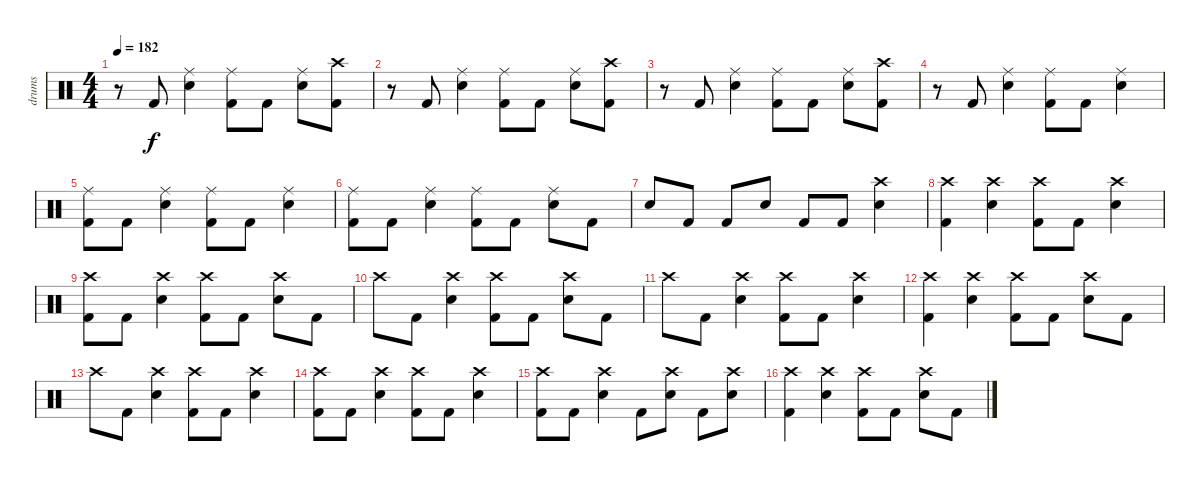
\track ("drums" "drums") {instrument percussion}
\staff {score}
\articulation defaults
\ts (4 4)
\tempo 182
\clef neutral
\ks c
r.8{dy f} "Kick (hit) 2".8 ("Ride (middle)" "Electric Snare (hit)").4 ("Ride (middle)" "Kick (hit) 2").8 "Kick (hit) 2".8 ("Ride (middle)" "Electric Snare (hit)").8 ("Crash high (hit)" "Kick (hit) 2").8 |
r.8 "Kick (hit) 2".8 ("Ride (middle)" "Electric Snare (hit)").4 ("Ride (middle)" "Kick (hit) 2").8 "Kick (hit) 2".8 ("Ride (middle)" "Electric Snare (hit)").8 ("Crash high (hit)" "Kick (hit) 2").8 |
r.8 "Kick (hit) 2".8 ("Ride (middle)" "Electric Snare (hit)").4 ("Ride (middle)" "Kick (hit) 2").8 "Kick (hit) 2".8 ("Ride (middle)" "Electric Snare (hit)").8 ("Crash high (hit)" "Kick (hit) 2").8 |
r.8 "Kick (hit) 2".8 ("Ride (middle)" "Electric Snare (hit)").4 ("Ride (middle)" "Kick (hit) 2").8 "Kick (hit) 2".8 ("Ride (middle)" "Electric Snare (hit)").4 |
("Ride (middle)" "Kick (hit) 2").8 "Kick (hit) 2".8 ("Ride (middle)" "Electric Snare (hit)").4 ("Ride (middle)" "Kick (hit) 2").8 "Kick (hit) 2".8 ("Ride (middle)" "Electric Snare (hit)").4 |
("Ride (middle)" "Kick (hit) 2").8 "Kick (hit) 2".8 ("Ride (middle)" "Electric Snare (hit)").4 ("Ride (middle)" "Kick (hit) 2").8 "Kick (hit) 2".8 ("Ride (middle)" "Electric Snare (hit)").8 "Kick (hit) 2".8 |
"Electric Snare (hit)".8 "Kick (hit) 2".8 "Kick (hit) 2".8 "Electric Snare (hit)".8 "Kick (hit) 2".8 "Kick (hit) 2".8 ("Crash high (hit)" "Electric Snare (hit)").4 |
("Crash high (hit)" "Kick (hit) 2").4 ("Crash high (hit)" "Electric Snare (hit)").4 ("Crash high (hit)" "Kick (hit) 2").8 "Kick (hit) 2".8 ("Crash high (hit)" "Electric Snare (hit)").4 |
("Crash high (hit)" "Kick (hit) 2").8 "Kick (hit) 2".8 ("Crash high (hit)" "Electric Snare (hit)").4 ("Crash high (hit)" "Kick (hit) 2").8 "Kick (hit) 2".8 ("Crash high (hit)" "Electric Snare (hit)").8 "Kick (hit) 2".8 |
"Crash high (hit)".8 "Kick (hit) 2".8 ("Crash high (hit)" "Electric Snare (hit)").4 ("Crash high (hit)" "Kick (hit) 2").8 "Kick (hit) 2".8 ("Crash high (hit)" "Electric Snare (hit)").8 "Kick (hit) 2".8 |
"Crash high (hit)".8 "Kick (hit) 2".8 ("Crash high (hit)" "Electric Snare (hit)").4 ("Crash high (hit)" "Kick (hit) 2").8 "Kick (hit) 2".8 ("Crash high (hit)" "Electric Snare (hit)").4 |
("Crash high (hit)" "Kick (hit) 2").4 ("Crash high (hit)" "Electric Snare (hit)").4 ("Crash high (hit)" "Kick (hit) 2").8 "Kick (hit) 2".8 ("Crash high (hit)" "Electric Snare (hit)").8 "Kick (hit) 2".8 |
"Crash high (hit)".8 "Kick (hit) 2".8 ("Crash high (hit)" "Electric Snare (hit)").4 ("Crash high (hit)" "Kick (hit) 2").8 "Kick (hit) 2".8 ("Crash high (hit)" "Electric Snare (hit)").4 |
("Crash high (hit)" "Kick (hit) 2").8 "Kick (hit) 2".8 ("Crash high (hit)" "Electric Snare (hit)").4 ("Crash high (hit)" "Kick (hit) 2").8 "Kick (hit) 2".8 ("Crash high (hit)" "Electric Snare (hit)").4 |
("Crash high (hit)" "Kick (hit) 2").8 "Kick (hit) 2".8 ("Crash high (hit)" "Electric Snare (hit)").4 "Kick (hit) 2".8 ("Crash high (hit)" "Electric Snare (hit)").8 "Kick (hit) 2".8 ("Crash high (hit)" "Electric Snare (hit)").8 |
("Crash high (hit)" "Kick (hit) 2").4 ("Crash high (hit)" "Electric Snare (hit)").4 ("Crash high (hit)" "Kick (hit) 2").8 "Kick (hit) 2".8 ("Crash high (hit)" "Electric Snare (hit)").8 "Kick (hit) 2".8
